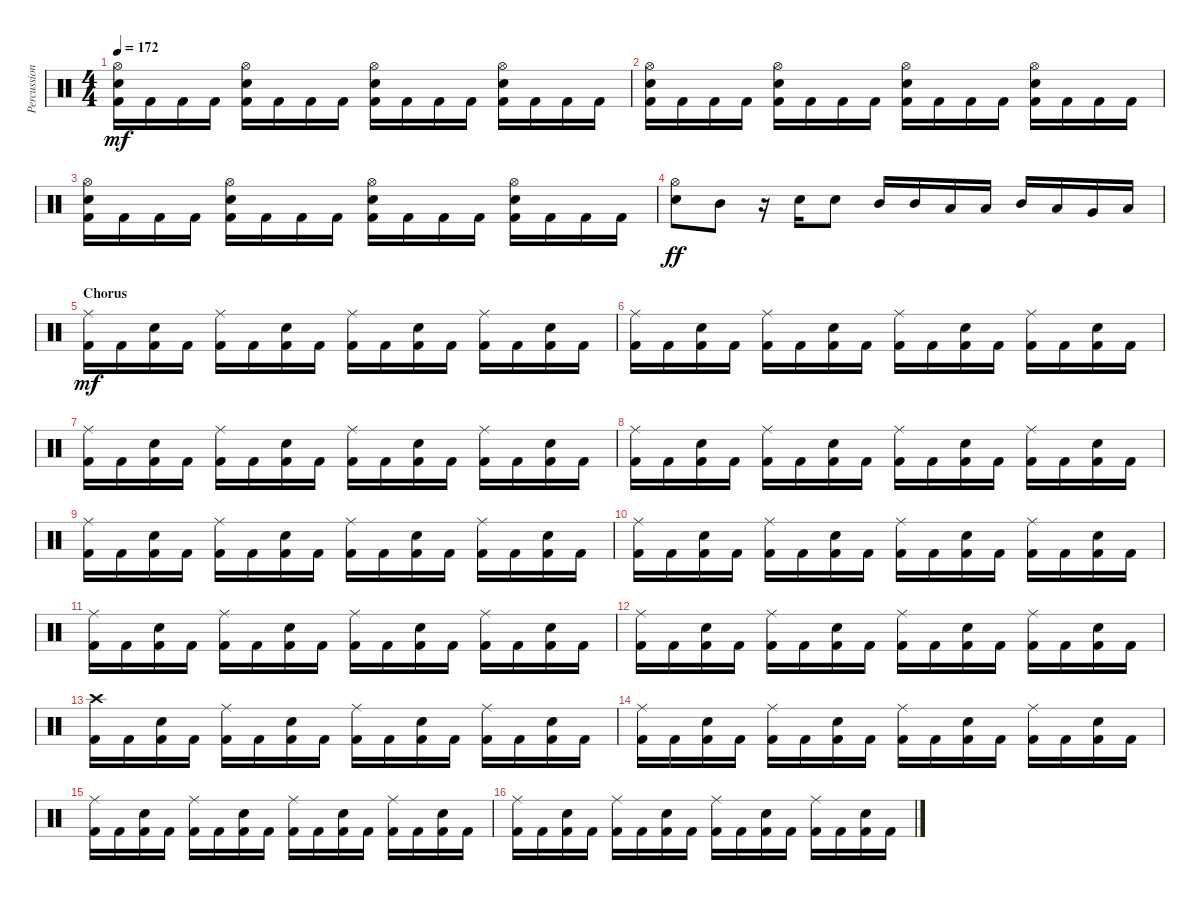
\track ("Percussion" "Percussion") {instrument percussion}
\staff {score}
\articulation defaults
\ts (4 4)
\tempo 172
\clef neutral
\ks c
("Hi-Hat (open)" "Electric Snare (hit)" "Kick (hit) 2").16{dy mf} "Kick (hit) 2".16 "Kick (hit) 2".16 "Kick (hit) 2".16 ("Hi-Hat (open)" "Electric Snare (hit)" "Kick (hit) 2").16 "Kick (hit) 2".16 "Kick (hit) 2".16 "Kick (hit) 2".16 ("Hi-Hat (open)" "Electric Snare (hit)" "Kick (hit) 2").16 "Kick (hit) 2".16 "Kick (hit) 2".16 "Kick (hit) 2".16 ("Hi-Hat (open)" "Electric Snare (hit)" "Kick (hit) 2").16 "Kick (hit) 2".16 "Kick (hit) 2".16 "Kick (hit) 2".16 |
("Hi-Hat (open)" "Electric Snare (hit)" "Kick (hit) 2").16 "Kick (hit) 2".16 "Kick (hit) 2".16 "Kick (hit) 2".16 ("Hi-Hat (open)" "Electric Snare (hit)" "Kick (hit) 2").16 "Kick (hit) 2".16 "Kick (hit) 2".16 "Kick (hit) 2".16 ("Hi-Hat (open)" "Electric Snare (hit)" "Kick (hit) 2").16 "Kick (hit) 2".16 "Kick (hit) 2".16 "Kick (hit) 2".16 ("Hi-Hat (open)" "Electric Snare (hit)" "Kick (hit) 2").16 "Kick (hit) 2".16 "Kick (hit) 2".16 "Kick (hit) 2".16 |
("Hi-Hat (open)" "Electric Snare (hit)" "Kick (hit) 2").16 "Kick (hit) 2".16 "Kick (hit) 2".16 "Kick (hit) 2".16 ("Hi-Hat (open)" "Electric Snare (hit)" "Kick (hit) 2").16 "Kick (hit) 2".16 "Kick (hit) 2".16 "Kick (hit) 2".16 ("Hi-Hat (open)" "Electric Snare (hit)" "Kick (hit) 2").16 "Kick (hit) 2".16 "Kick (hit) 2".16 "Kick (hit) 2".16 ("Hi-Hat (open)" "Electric Snare (hit)" "Kick (hit) 2").16 "Kick (hit) 2".16 "Kick (hit) 2".16 "Kick (hit) 2".16 |
("Hi-Hat (open)" "Electric Snare (hit)").8{dy ff} "Mid Tom (hit)".8 r.16 "Electric Snare (hit)".16 "Electric Snare (hit)".8 "Mid Tom (hit)".16 "Mid Tom (hit)".16 "Low Tom (hit)".16 "Low Tom (hit)".16 "Mid Tom (hit)".16 "Low Tom (hit)".16 "Very Low Tom (hit)".16 "Low Floor Tom (hit)".16 |
\section ("" "Chorus")
("Ride (middle)" "Kick (hit) 2").16{dy mf} "Kick (hit) 2".16 ("Electric Snare (hit)" "Kick (hit) 2").16 "Kick (hit) 2".16 ("Ride (middle)" "Kick (hit) 2").16 "Kick (hit) 2".16 ("Electric Snare (hit)" "Kick (hit) 2").16 "Kick (hit) 2".16 ("Ride (middle)" "Kick (hit) 2").16 "Kick (hit) 2".16 ("Electric Snare (hit)" "Kick (hit) 2").16 "Kick (hit) 2".16 ("Ride (middle)" "Kick (hit) 2").16 "Kick (hit) 2".16 ("Electric Snare (hit)" "Kick (hit) 2").16 "Kick (hit) 2".16 |
("Ride (middle)" "Kick (hit) 2").16 "Kick (hit) 2".16 ("Electric Snare (hit)" "Kick (hit) 2").16 "Kick (hit) 2".16 ("Ride (middle)" "Kick (hit) 2").16 "Kick (hit) 2".16 ("Electric Snare (hit)" "Kick (hit) 2").16 "Kick (hit) 2".16 ("Ride (middle)" "Kick (hit) 2").16 "Kick (hit) 2".16 ("Electric Snare (hit)" "Kick (hit) 2").16 "Kick (hit) 2".16 ("Ride (middle)" "Kick (hit) 2").16 "Kick (hit) 2".16 ("Electric Snare (hit)" "Kick (hit) 2").16 "Kick (hit) 2".16 |
("Ride (middle)" "Kick (hit) 2").16 "Kick (hit) 2".16 ("Electric Snare (hit)" "Kick (hit) 2").16 "Kick (hit) 2".16 ("Ride (middle)" "Kick (hit) 2").16 "Kick (hit) 2".16 ("Electric Snare (hit)" "Kick (hit) 2").16 "Kick (hit) 2".16 ("Ride (middle)" "Kick (hit) 2").16 "Kick (hit) 2".16 ("Electric Snare (hit)" "Kick (hit) 2").16 "Kick (hit) 2".16 ("Ride (middle)" "Kick (hit) 2").16 "Kick (hit) 2".16 ("Electric Snare (hit)" "Kick (hit) 2").16 "Kick (hit) 2".16 |
("Ride (middle)" "Kick (hit) 2").16 "Kick (hit) 2".16 ("Electric Snare (hit)" "Kick (hit) 2").16 "Kick (hit) 2".16 ("Ride (middle)" "Kick (hit) 2").16 "Kick (hit) 2".16 ("Electric Snare (hit)" "Kick (hit) 2").16 "Kick (hit) 2".16 ("Ride (middle)" "Kick (hit) 2").16 "Kick (hit) 2".16 ("Electric Snare (hit)" "Kick (hit) 2").16 "Kick (hit) 2".16 ("Ride (middle)" "Kick (hit) 2").16 "Kick (hit) 2".16 ("Electric Snare (hit)" "Kick (hit) 2").16 "Kick (hit) 2".16 |
("Ride (middle)" "Kick (hit) 2").16 "Kick (hit) 2".16 ("Electric Snare (hit)" "Kick (hit) 2").16 "Kick (hit) 2".16 ("Ride (middle)" "Kick (hit) 2").16 "Kick (hit) 2".16 ("Electric Snare (hit)" "Kick (hit) 2").16 "Kick (hit) 2".16 ("Ride (middle)" "Kick (hit) 2").16 "Kick (hit) 2".16 ("Electric Snare (hit)" "Kick (hit) 2").16 "Kick (hit) 2".16 ("Ride (middle)" "Kick (hit) 2").16 "Kick (hit) 2".16 ("Electric Snare (hit)" "Kick (hit) 2").16 "Kick (hit) 2".16 |
("Ride (middle)" "Kick (hit) 2").16 "Kick (hit) 2".16 ("Electric Snare (hit)" "Kick (hit) 2").16 "Kick (hit) 2".16 ("Ride (middle)" "Kick (hit) 2").16 "Kick (hit) 2".16 ("Electric Snare (hit)" "Kick (hit) 2").16 "Kick (hit) 2".16 ("Ride (middle)" "Kick (hit) 2").16 "Kick (hit) 2".16 ("Electric Snare (hit)" "Kick (hit) 2").16 "Kick (hit) 2".16 ("Ride (middle)" "Kick (hit) 2").16 "Kick (hit) 2".16 ("Electric Snare (hit)" "Kick (hit) 2").16 "Kick (hit) 2".16 |
("Ride (middle)" "Kick (hit) 2").16 "Kick (hit) 2".16 ("Electric Snare (hit)" "Kick (hit) 2").16 "Kick (hit) 2".16 ("Ride (middle)" "Kick (hit) 2").16 "Kick (hit) 2".16 ("Electric Snare (hit)" "Kick (hit) 2").16 "Kick (hit) 2".16 ("Ride (middle)" "Kick (hit) 2").16 "Kick (hit) 2".16 ("Electric Snare (hit)" "Kick (hit) 2").16 "Kick (hit) 2".16 ("Ride (middle)" "Kick (hit) 2").16 "Kick (hit) 2".16 ("Electric Snare (hit)" "Kick (hit) 2").16 "Kick (hit) 2".16 |
("Ride (middle)" "Kick (hit) 2").16 "Kick (hit) 2".16 ("Electric Snare (hit)" "Kick (hit) 2").16 "Kick (hit) 2".16 ("Ride (middle)" "Kick (hit) 2").16 "Kick (hit) 2".16 ("Electric Snare (hit)" "Kick (hit) 2").16 "Kick (hit) 2".16 ("Ride (middle)" "Kick (hit) 2").16 "Kick (hit) 2".16 ("Electric Snare (hit)" "Kick (hit) 2").16 "Kick (hit) 2".16 ("Ride (middle)" "Kick (hit) 2").16 "Kick (hit) 2".16 ("Electric Snare (hit)" "Kick (hit) 2").16 "Kick (hit) 2".16 |
("Crash high (hit)" "Kick (hit) 2").16 "Kick (hit) 2".16 ("Electric Snare (hit)" "Kick (hit) 2").16 "Kick (hit) 2".16 ("Ride (middle)" "Kick (hit) 2").16 "Kick (hit) 2".16 ("Electric Snare (hit)" "Kick (hit) 2").16 "Kick (hit) 2".16 ("Ride (middle)" "Kick (hit) 2").16 "Kick (hit) 2".16 ("Electric Snare (hit)" "Kick (hit) 2").16 "Kick (hit) 2".16 ("Ride (middle)" "Kick (hit) 2").16 "Kick (hit) 2".16 ("Electric Snare (hit)" "Kick (hit) 2").16 "Kick (hit) 2".16 |
("Ride (middle)" "Kick (hit) 2").16 "Kick (hit) 2".16 ("Electric Snare (hit)" "Kick (hit) 2").16 "Kick (hit) 2".16 ("Ride (middle)" "Kick (hit) 2").16 "Kick (hit) 2".16 ("Electric Snare (hit)" "Kick (hit) 2").16 "Kick (hit) 2".16 ("Ride (middle)" "Kick (hit) 2").16 "Kick (hit) 2".16 ("Electric Snare (hit)" "Kick (hit) 2").16 "Kick (hit) 2".16 ("Ride (middle)" "Kick (hit) 2").16 "Kick (hit) 2".16 ("Electric Snare (hit)" "Kick (hit) 2").16 "Kick (hit) 2".16 |
("Ride (middle)" "Kick (hit) 2").16 "Kick (hit) 2".16 ("Electric Snare (hit)" "Kick (hit) 2").16 "Kick (hit) 2".16 ("Ride (middle)" "Kick (hit) 2").16 "Kick (hit) 2".16 ("Electric Snare (hit)" "Kick (hit) 2").16 "Kick (hit) 2".16 ("Ride (middle)" "Kick (hit) 2").16 "Kick (hit) 2".16 ("Electric Snare (hit)" "Kick (hit) 2").16 "Kick (hit) 2".16 ("Ride (middle)" "Kick (hit) 2").16 "Kick (hit) 2".16 ("Electric Snare (hit)" "Kick (hit) 2").16 "Kick (hit) 2".16 |
("Ride (middle)" "Kick (hit) 2").16 "Kick (hit) 2".16 ("Electric Snare (hit)" "Kick (hit) 2").16 "Kick (hit) 2".16 ("Ride (middle)" "Kick (hit) 2").16 "Kick (hit) 2".16 ("Electric Snare (hit)" "Kick (hit) 2").16 "Kick (hit) 2".16 ("Ride (middle)" "Kick (hit) 2").16 "Kick (hit) 2".16 ("Electric Snare (hit)" "Kick (hit) 2").16 "Kick (hit) 2".16 ("Ride (middle)" "Kick (hit) 2").16 "Kick (hit) 2".16 ("Electric Snare (hit)" "Kick (hit) 2").16 "Kick (hit) 2".16
